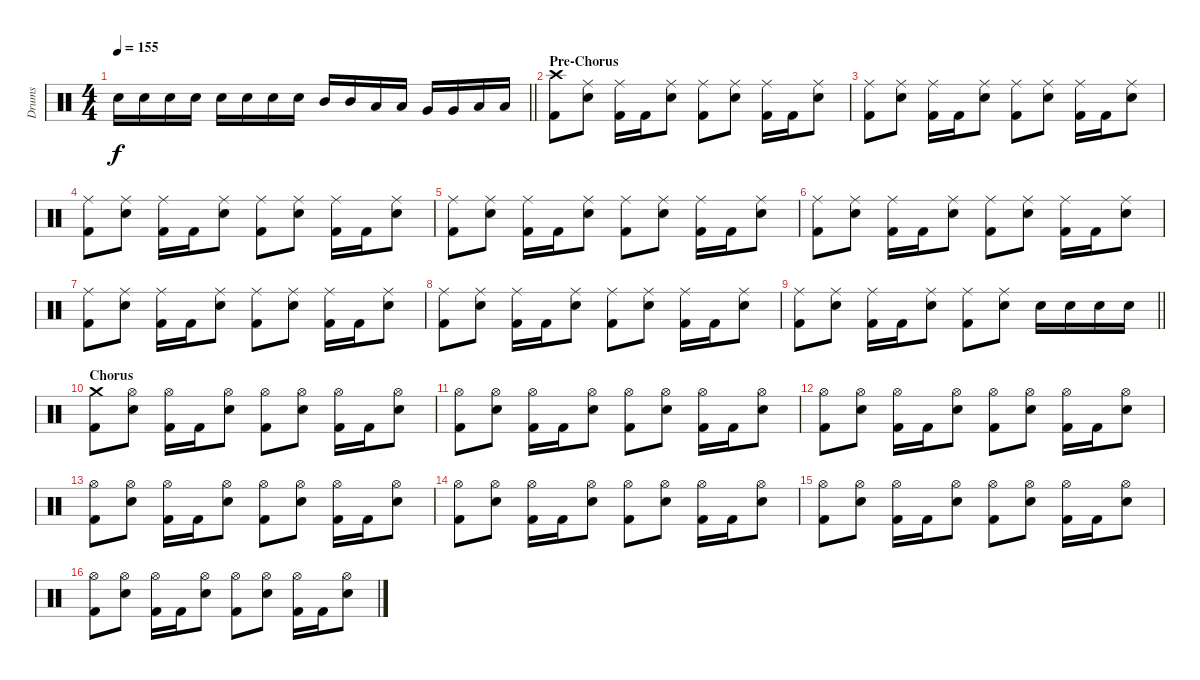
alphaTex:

\track ("Drums" "Drums") {instrument percussion}
\staff {score}
\articulation defaults
\ts (4 4)
\tempo 155
\clef neutral
\barLineRight lightlight
\ks c "Electric Snare (hit)".16{dy f} "Electric Snare (hit)".16 "Electric Snare (hit)".16 "Electric Snare (hit)".16 "Electric Snare (hit)".16 "Electric Snare (hit)".16 "Electric Snare (hit)".16 "Electric Snare (hit)".16 "Mid Tom (hit)".16 "Mid Tom (hit)".16 "Low Tom (hit)".16 "Low Tom (hit)".16 "Very Low Tom (hit)".16 "Very Low Tom (hit)".16 "Low Floor Tom (hit)".16 "Low Floor Tom (hit)".16
|
\section ("" "Pre-Chorus")
("Crash high (hit)" "Kick (hit) 2").8 ("Ride (middle)" "Electric Snare (hit)").8 ("Ride (middle)" "Kick (hit) 2").16 "Kick (hit) 2".16 ("Ride (middle)" "Electric Snare (hit)").8 ("Ride (middle)" "Kick (hit) 2").8 ("Ride (middle)" "Electric Snare (hit)").8 ("Ride (middle)" "Kick (hit) 2").16 "Kick (hit) 2".16 ("Ride (middle)" "Electric Snare (hit)").8 |
("Ride (middle)" "Kick (hit) 2").8 ("Ride (middle)" "Electric Snare (hit)").8 ("Ride (middle)" "Kick (hit) 2").16 "Kick (hit) 2".16 ("Ride (middle)" "Electric Snare (hit)").8 ("Ride (middle)" "Kick (hit) 2").8 ("Ride (middle)" "Electric Snare (hit)").8 ("Ride (middle)" "Kick (hit) 2").16 "Kick (hit) 2".16 ("Ride (middle)" "Electric Snare (hit)").8 |
("Ride (middle)" "Kick (hit) 2").8 ("Ride (middle)" "Electric Snare (hit)").8 ("Ride (middle)" "Kick (hit) 2").16 "Kick (hit) 2".16 ("Ride (middle)" "Electric Snare (hit)").8 ("Ride (middle)" "Kick (hit) 2").8 ("Ride (middle)" "Electric Snare (hit)").8 ("Ride (middle)" "Kick (hit) 2").16 "Kick (hit) 2".16 ("Ride (middle)" "Electric Snare (hit)").8 |
("Ride (middle)" "Kick (hit) 2").8 ("Ride (middle)" "Electric Snare (hit)").8 ("Ride (middle)" "Kick (hit) 2").16 "Kick (hit) 2".16 ("Ride (middle)" "Electric Snare (hit)").8 ("Ride (middle)" "Kick (hit) 2").8 ("Ride (middle)" "Electric Snare (hit)").8 ("Ride (middle)" "Kick (hit) 2").16 "Kick (hit) 2".16 ("Ride (middle)" "Electric Snare (hit)").8 |
("Ride (middle)" "Kick (hit) 2").8 ("Ride (middle)" "Electric Snare (hit)").8 ("Ride (middle)" "Kick (hit) 2").16 "Kick (hit) 2".16 ("Ride (middle)" "Electric Snare (hit)").8 ("Ride (middle)" "Kick (hit) 2").8 ("Ride (middle)" "Electric Snare (hit)").8 ("Ride (middle)" "Kick (hit) 2").16 "Kick (hit) 2".16 ("Ride (middle)" "Electric Snare (hit)").8 |
("Ride (middle)" "Kick (hit) 2").8 ("Ride (middle)" "Electric Snare (hit)").8 ("Ride (middle)" "Kick (hit) 2").16 "Kick (hit) 2".16 ("Ride (middle)" "Electric Snare (hit)").8 ("Ride (middle)" "Kick (hit) 2").8 ("Ride (middle)" "Electric Snare (hit)").8 ("Ride (middle)" "Kick (hit) 2").16 "Kick (hit) 2".16 ("Ride (middle)" "Electric Snare (hit)").8 |
("Ride (middle)" "Kick (hit) 2").8 ("Ride (middle)" "Electric Snare (hit)").8 ("Ride (middle)" "Kick (hit) 2").16 "Kick (hit) 2".16 ("Ride (middle)" "Electric Snare (hit)").8 ("Ride (middle)" "Kick (hit) 2").8 ("Ride (middle)" "Electric Snare (hit)").8 ("Ride (middle)" "Kick (hit) 2").16 "Kick (hit) 2".16 ("Ride (middle)" "Electric Snare (hit)").8 |
\barLineRight lightlight
("Ride (middle)" "Kick (hit) 2").8 ("Ride (middle)" "Electric Snare (hit)").8 ("Ride (middle)" "Kick (hit) 2").16 "Kick (hit) 2".16 ("Ride (middle)" "Electric Snare (hit)").8 ("Ride (middle)" "Kick (hit) 2").8 ("Ride (middle)" "Electric Snare (hit)").8 "Electric Snare (hit)".16 "Electric Snare (hit)".16 "Electric Snare (hit)".16 "Electric Snare (hit)".16 |
\section ("" "Chorus")
("Crash medium (hit)" "Kick (hit) 2").8 ("Hi-Hat (open)" "Electric Snare (hit)").8 ("Hi-Hat (open)" "Kick (hit) 2").16 "Kick (hit) 2".16 ("Hi-Hat (open)" "Electric Snare (hit)").8 ("Hi-Hat (open)" "Kick (hit) 2").8 ("Hi-Hat (open)" "Electric Snare (hit)").8 ("Hi-Hat (open)" "Kick (hit) 2").16 "Kick (hit) 2".16 ("Hi-Hat (open)" "Electric Snare (hit)").8 |
("Hi-Hat (open)" "Kick (hit) 2").8 ("Hi-Hat (open)" "Electric Snare (hit)").8 ("Hi-Hat (open)" "Kick (hit) 2").16 "Kick (hit) 2".16 ("Hi-Hat (open)" "Electric Snare (hit)").8 ("Hi-Hat (open)" "Kick (hit) 2").8 ("Hi-Hat (open)" "Electric Snare (hit)").8 ("Hi-Hat (open)" "Kick (hit) 2").16 "Kick (hit) 2".16 ("Hi-Hat (open)" "Electric Snare (hit)").8 |
("Hi-Hat (open)" "Kick (hit) 2").8 ("Hi-Hat (open)" "Electric Snare (hit)").8 ("Hi-Hat (open)" "Kick (hit) 2").16 "Kick (hit) 2".16 ("Hi-Hat (open)" "Electric Snare (hit)").8 ("Hi-Hat (open)" "Kick (hit) 2").8 ("Hi-Hat (open)" "Electric Snare (hit)").8 ("Hi-Hat (open)" "Kick (hit) 2").16 "Kick (hit) 2".16 ("Hi-Hat (open)" "Electric Snare (hit)").8 |
("Hi-Hat (open)" "Kick (hit) 2").8 ("Hi-Hat (open)" "Electric Snare (hit)").8 ("Hi-Hat (open)" "Kick (hit) 2").16 "Kick (hit) 2".16 ("Hi-Hat (open)" "Electric Snare (hit)").8 ("Hi-Hat (open)" "Kick (hit) 2").8 ("Hi-Hat (open)" "Electric Snare (hit)").8 ("Hi-Hat (open)" "Kick (hit) 2").16 "Kick (hit) 2".16 ("Hi-Hat (open)" "Electric Snare (hit)").8 |
("Hi-Hat (open)" "Kick (hit) 2").8 ("Hi-Hat (open)" "Electric Snare (hit)").8 ("Hi-Hat (open)" "Kick (hit) 2").16 "Kick (hit) 2".16 ("Hi-Hat (open)" "Electric Snare (hit)").8 ("Hi-Hat (open)" "Kick (hit) 2").8 ("Hi-Hat (open)" "Electric Snare (hit)").8 ("Hi-Hat (open)" "Kick (hit) 2").16 "Kick (hit) 2".16 ("Hi-Hat (open)" "Electric Snare (hit)").8 |
("Hi-Hat (open)" "Kick (hit) 2").8 ("Hi-Hat (open)" "Electric Snare (hit)").8 ("Hi-Hat (open)" "Kick (hit) 2").16 "Kick (hit) 2".16 ("Hi-Hat (open)" "Electric Snare (hit)").8 ("Hi-Hat (open)" "Kick (hit) 2").8 ("Hi-Hat (open)" "Electric Snare (hit)").8 ("Hi-Hat (open)" "Kick (hit) 2").16 "Kick (hit) 2".16 ("Hi-Hat (open)" "Electric Snare (hit)").8 |
("Hi-Hat (open)" "Kick (hit) 2").8 ("Hi-Hat (open)" "Electric Snare (hit)").8 ("Hi-Hat (open)" "Kick (hit) 2").16 "Kick (hit) 2".16 ("Hi-Hat (open)" "Electric Snare (hit)").8 ("Hi-Hat (open)" "Kick (hit) 2").8 ("Hi-Hat (open)" "Electric Snare (hit)").8 ("Hi-Hat (open)" "Kick (hit) 2").16 "Kick (hit) 2".16 ("Hi-Hat (open)" "Electric Snare (hit)").8
